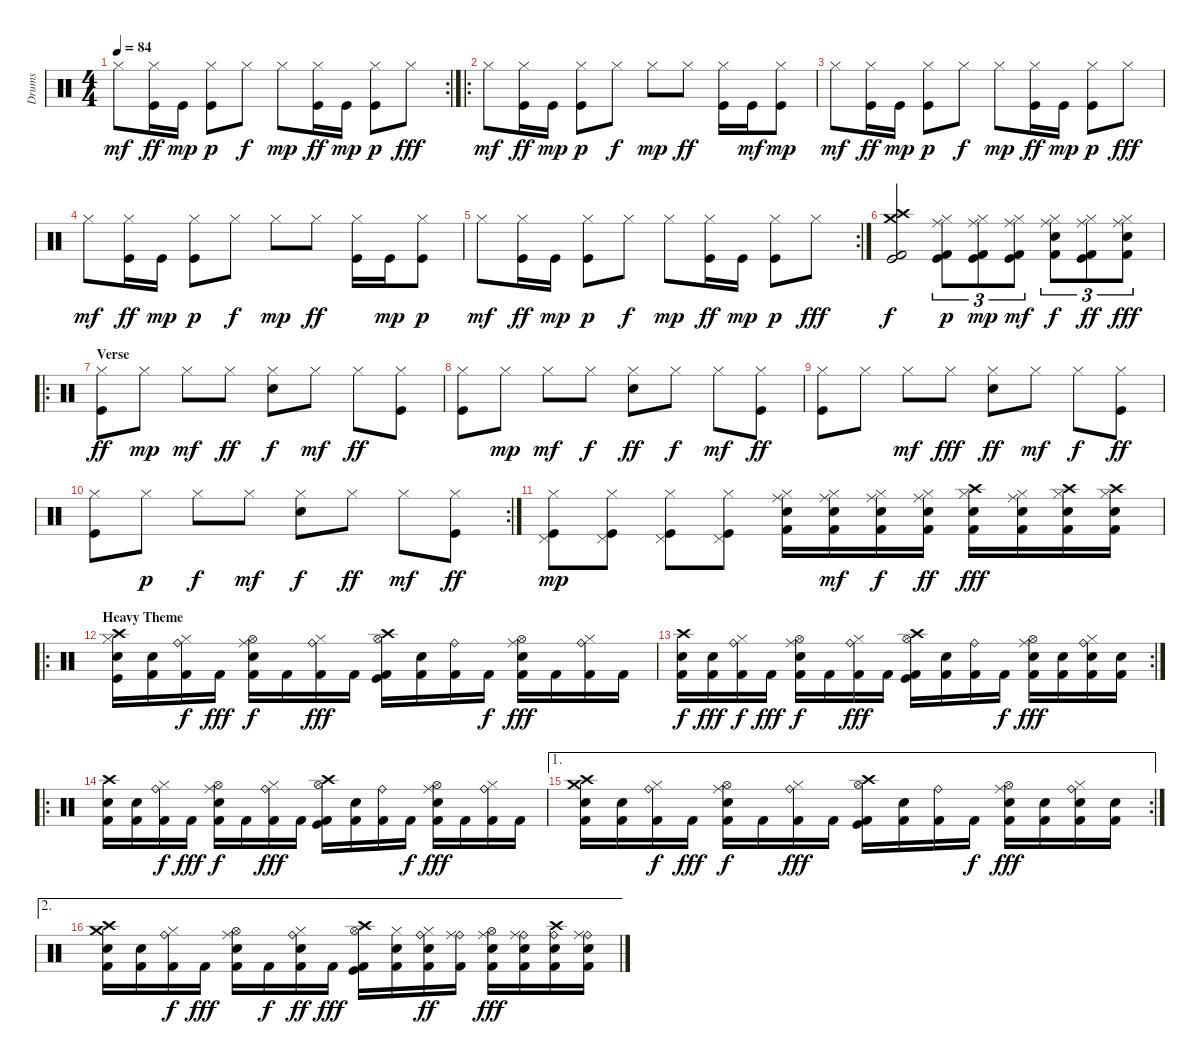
\track ("Drums" "Drums") {instrument percussion}
\staff {score}
\articulation defaults
\rc 2
\ts (4 4)
\tempo 84
\clef neutral
\ks c "Hi-Hat (closed)".8{dy mf}
("Hi-Hat (closed)" "Kick (hit)").16{dy ff} "Kick (hit)".16{dy mp} ("Hi-Hat (closed)" "Kick (hit)").8{dy p} "Hi-Hat (closed)".8{dy f} "Hi-Hat (closed)".8{dy mp} ("Hi-Hat (closed)" "Kick (hit)").16{dy ff} "Kick (hit)".16{dy mp} ("Hi-Hat (closed)" "Kick (hit)").8{dy p} "Hi-Hat (closed)".8{dy fff} |
\ro "Hi-Hat (closed)".8{dy mf}
("Hi-Hat (closed)" "Kick (hit)").16{dy ff} "Kick (hit)".16{dy mp} ("Hi-Hat (closed)" "Kick (hit)").8{dy p} "Hi-Hat (closed)".8{dy f} "Hi-Hat (closed)".8{dy mp} "Hi-Hat (closed)".8{dy ff} ("Hi-Hat (closed)" "Kick (hit)").16 "Kick (hit)".16{dy mf} ("Hi-Hat (closed)" "Kick (hit)").8{dy mp} |
"Hi-Hat (closed)".8{dy mf} ("Hi-Hat (closed)" "Kick (hit)").16{dy ff} "Kick (hit)".16{dy mp} ("Hi-Hat (closed)" "Kick (hit)").8{dy p} "Hi-Hat (closed)".8{dy f} "Hi-Hat (closed)".8{dy mp} ("Hi-Hat (closed)" "Kick (hit)").16{dy ff} "Kick (hit)".16{dy mp} ("Hi-Hat (closed)" "Kick (hit)").8{dy p} "Hi-Hat (closed)".8{dy fff} |
"Hi-Hat (closed)".8{dy mf} ("Hi-Hat (closed)" "Kick (hit)").16{dy ff} "Kick (hit)".16{dy mp} ("Hi-Hat (closed)" "Kick (hit)").8{dy p} "Hi-Hat (closed)".8{dy f} "Hi-Hat (closed)".8{dy mp} "Hi-Hat (closed)".8{dy ff} ("Hi-Hat (closed)" "Kick (hit)").16 "Kick (hit)".16{dy mp} ("Hi-Hat (closed)" "Kick (hit)").8{dy p} |
\rc 2 "Hi-Hat (closed)".8{dy mf}
("Hi-Hat (closed)" "Kick (hit)").16{dy ff} "Kick (hit)".16{dy mp} ("Hi-Hat (closed)" "Kick (hit)").8{dy p} "Hi-Hat (closed)".8{dy f} "Hi-Hat (closed)".8{dy mp} ("Hi-Hat (closed)" "Kick (hit)").16{dy ff} "Kick (hit)".16{dy mp} ("Hi-Hat (closed)" "Kick (hit)").8{dy p} "Hi-Hat (closed)".8{dy fff} |
("Crash medium (hit)" "Crash high (hit)" "Kick (hit) 2" "Kick (hit)").2{dy f} ("Ride (middle)" "Hi-Hat (closed)" "Kick (hit)" "Kick (hit) 2").8{tu (3 2) dy p} ("Ride (middle)" "Hi-Hat (closed)" "Kick (hit)" "Kick (hit) 2").8{tu (3 2) dy mp} ("Ride (middle)" "Hi-Hat (closed)" "Kick (hit)" "Kick (hit) 2").8{tu (3 2) dy mf} ("Ride (middle)" "Hi-Hat (closed)" "Electric Snare (hit)" "Kick (hit) 2").8{tu (3 2) dy f} ("Ride (middle)" "Hi-Hat (closed)" "Kick (hit)" "Kick (hit) 2").8{tu (3 2) dy ff} ("Ride (middle)" "Hi-Hat (closed)" "Electric Snare (hit)" "Kick (hit) 2").8{tu (3 2) dy fff} |
\ro
\section ("" "Verse")
("Hi-Hat (closed)" "Kick (hit)").8{dy ff} "Hi-Hat (closed)".8{dy mp} "Hi-Hat (closed)".8{dy mf} "Hi-Hat (closed)".8{dy ff} ("Hi-Hat (closed)" "Snare (hit) 2").8{dy f} "Hi-Hat (closed)".8{dy mf} "Hi-Hat (closed)".8{dy ff} ("Hi-Hat (closed)" "Kick (hit)").8 |
("Hi-Hat (closed)" "Kick (hit)").8 "Hi-Hat (closed)".8{dy mp} "Hi-Hat (closed)".8{dy mf} "Hi-Hat (closed)".8{dy f} ("Hi-Hat (closed)" "Snare (hit) 2").8{dy ff} "Hi-Hat (closed)".8{dy f} "Hi-Hat (closed)".8{dy mf} ("Hi-Hat (closed)" "Kick (hit)").8{dy ff} |
("Hi-Hat (closed)" "Kick (hit)").8 "Hi-Hat (closed)".8 "Hi-Hat (closed)".8{dy mf} "Hi-Hat (closed)".8{dy fff} ("Hi-Hat (closed)" "Snare (hit) 2").8{dy ff} "Hi-Hat (closed)".8{dy mf} "Hi-Hat (closed)".8{dy f} ("Hi-Hat (closed)" "Kick (hit)").8{dy ff} |
\rc 2
("Hi-Hat (closed)" "Kick (hit)").8 "Hi-Hat (closed)".8{dy p} "Hi-Hat (closed)".8{dy f} "Hi-Hat (closed)".8{dy mf} ("Hi-Hat (closed)" "Snare (hit) 2").8{dy f} "Hi-Hat (closed)".8{dy ff} "Hi-Hat (closed)".8{dy mf} ("Hi-Hat (closed)" "Kick (hit)").8{dy ff} |
("Hi-Hat (closed)" "Pedal Hi-Hat (hit)" "Kick (hit)").8{dy mp} ("Hi-Hat (closed)" "Pedal Hi-Hat (hit)" "Kick (hit)").8 ("Hi-Hat (closed)" "Pedal Hi-Hat (hit)" "Kick (hit)").8 ("Hi-Hat (closed)" "Pedal Hi-Hat (hit)" "Kick (hit)").8 ("Hi-Hat (closed)" "Ride (middle)" "Kick (hit) 2" "Electric Snare (hit)").16 ("Hi-Hat (closed)" "Ride (middle)" "Kick (hit) 2" "Electric Snare (hit)").16{dy mf} ("Hi-Hat (closed)" "Ride (middle)" "Kick (hit) 2" "Electric Snare (hit)").16{dy f} ("Hi-Hat (closed)" "Ride (middle)" "Kick (hit) 2" "Electric Snare (hit)").16{dy ff} ("Hi-Hat (closed)" "Crash high (hit)" "Kick (hit) 2" "Electric Snare (hit)").16{dy fff} ("Hi-Hat (closed)" "Ride (middle)" "Kick (hit) 2" "Electric Snare (hit)").16 ("Hi-Hat (closed)" "Crash high (hit)" "Kick (hit) 2" "Electric Snare (hit)").16 ("Hi-Hat (closed)" "Crash high (hit)" "Kick (hit) 2" "Electric Snare (hit)").16 |
\ro
\section ("" "Heavy Theme")
("Crash high (hit)" "Hi-Hat (closed)" "Kick (hit)" "Snare (hit) 2").16 ("Metronome (bell)" "Kick (hit) 2").16 ("Hi-Hat (closed)" "Ride (bell)" "Kick (hit) 2").16{dy f} "Kick (hit) 2".16{dy fff} ("Hi-Hat (open)" "Ride (middle)" "Kick (hit) 2" "Snare (hit) 2").16{dy f} "Kick (hit) 2".16 ("Hi-Hat (closed)" "Ride (bell)" "Kick (hit) 2").16{dy fff} "Kick (hit) 2".16 ("Crash high (hit)" "Hi-Hat (open)" "Kick (hit) 2" "Kick (hit)").16 ("Metronome (bell)" "Kick (hit) 2").16 ("Ride (bell)" "Kick (hit) 2").16 "Kick (hit) 2".16{dy f} ("Hi-Hat (open)" "Ride (middle)" "Kick (hit) 2" "Snare (hit) 2").16{dy fff} "Kick (hit) 2".16 ("Hi-Hat (closed)" "Ride (bell)" "Kick (hit) 2").16 "Kick (hit) 2".16 |
\rc 2
("Crash high (hit)" "Kick (hit) 2" "Snare (hit) 2").16{dy f} ("Metronome (bell)" "Kick (hit) 2").16{dy fff} ("Hi-Hat (closed)" "Ride (bell)" "Kick (hit) 2").16{dy f} "Kick (hit) 2".16{dy fff} ("Hi-Hat (open)" "Ride (middle)" "Kick (hit) 2" "Snare (hit) 2").16{dy f} "Kick (hit) 2".16 ("Hi-Hat (closed)" "Ride (bell)" "Kick (hit) 2").16{dy fff} "Kick (hit) 2".16 ("Crash high (hit)" "Hi-Hat (open)" "Kick (hit) 2" "Kick (hit)").16 ("Metronome (bell)" "Kick (hit) 2").16 ("Ride (bell)" "Kick (hit) 2").16 "Kick (hit) 2".16{dy f} ("Hi-Hat (open)" "Ride (middle)" "Kick (hit) 2" "Snare (hit) 2").16{dy fff} ("Electric Snare (hit)" "Kick (hit) 2").16 ("Hi-Hat (closed)" "Ride (bell)" "Electric Snare (hit)" "Kick (hit) 2").16 ("Electric Snare (hit)" "Kick (hit) 2").16 |
\ro
("Crash high (hit)" "Kick (hit) 2" "Snare (hit) 2").16 ("Metronome (bell)" "Kick (hit) 2").16 ("Hi-Hat (closed)" "Ride (bell)" "Kick (hit) 2").16{dy f} "Kick (hit) 2".16{dy fff} ("Hi-Hat (open)" "Ride (middle)" "Kick (hit) 2" "Snare (hit) 2").16{dy f} "Kick (hit) 2".16 ("Hi-Hat (closed)" "Ride (bell)" "Kick (hit) 2").16{dy fff} "Kick (hit) 2".16 ("Crash high (hit)" "Hi-Hat (open)" "Kick (hit) 2" "Kick (hit)").16 ("Metronome (bell)" "Kick (hit) 2").16 ("Ride (bell)" "Kick (hit) 2").16 "Kick (hit) 2".16{dy f} ("Hi-Hat (open)" "Ride (middle)" "Kick (hit) 2" "Snare (hit) 2").16{dy fff} "Kick (hit) 2".16 ("Hi-Hat (closed)" "Ride (bell)" "Kick (hit) 2").16 "Kick (hit) 2".16 |
\ae 1
\rc 2
("Crash high (hit)" "Crash medium (hit)" "Kick (hit) 2" "Snare (hit) 2").16 ("Metronome (bell)" "Kick (hit) 2").16 ("Hi-Hat (closed)" "Ride (bell)" "Kick (hit) 2").16{dy f} "Kick (hit) 2".16{dy fff} ("Hi-Hat (open)" "Ride (middle)" "Kick (hit) 2" "Snare (hit) 2").16{dy f} "Kick (hit) 2".16 ("Hi-Hat (closed)" "Ride (bell)" "Kick (hit) 2").16{dy fff} "Kick (hit) 2".16 ("Crash high (hit)" "Hi-Hat (open)" "Kick (hit) 2" "Kick (hit)").16 ("Metronome (bell)" "Kick (hit) 2").16 ("Ride (bell)" "Kick (hit) 2").16 "Kick (hit) 2".16{dy f} ("Hi-Hat (open)" "Ride (middle)" "Kick (hit) 2" "Snare (hit) 2").16{dy fff} ("Electric Snare (hit)" "Kick (hit) 2").16 ("Hi-Hat (closed)" "Ride (bell)" "Electric Snare (hit)" "Kick (hit) 2").16 ("Electric Snare (hit)" "Kick (hit) 2").16 |
\ae 2
("Crash high (hit)" "Crash medium (hit)" "Kick (hit) 2" "Snare (hit) 2").16 ("Metronome (bell)" "Kick (hit) 2").16 ("Hi-Hat (closed)" "Ride (bell)" "Kick (hit) 2").16{dy f} "Kick (hit) 2".16{dy fff} ("Hi-Hat (open)" "Ride (middle)" "Kick (hit) 2" "Snare (hit) 2").16 "Kick (hit) 2".16{dy f} ("Hi-Hat (closed)" "Ride (bell)" "Kick (hit) 2" "Snare (hit) 2").16{dy ff} "Kick (hit) 2".16{dy fff} ("Crash high (hit)" "Hi-Hat (open)" "Kick (hit) 2" "Kick (hit)").16 ("Hi-Hat (closed)" "Metronome (bell)" "Kick (hit) 2").16 ("Hi-Hat (closed)" "Ride (bell)" "Kick (hit) 2" "Snare (hit) 2").16{dy ff} ("Ride (bell)" "Ride (middle)" "Kick (hit) 2").16 ("Hi-Hat (open)" "Ride (middle)" "Kick (hit) 2" "Snare (hit) 2").16{dy fff} ("Ride (bell)" "Ride (middle)" "Electric Snare (hit)" "Kick (hit) 2").16 ("Crash high (hit)" "Ride (bell)" "Electric Snare (hit)" "Kick (hit) 2").16 ("Ride (bell)" "Ride (middle)" "Electric Snare (hit)" "Kick (hit) 2").16
